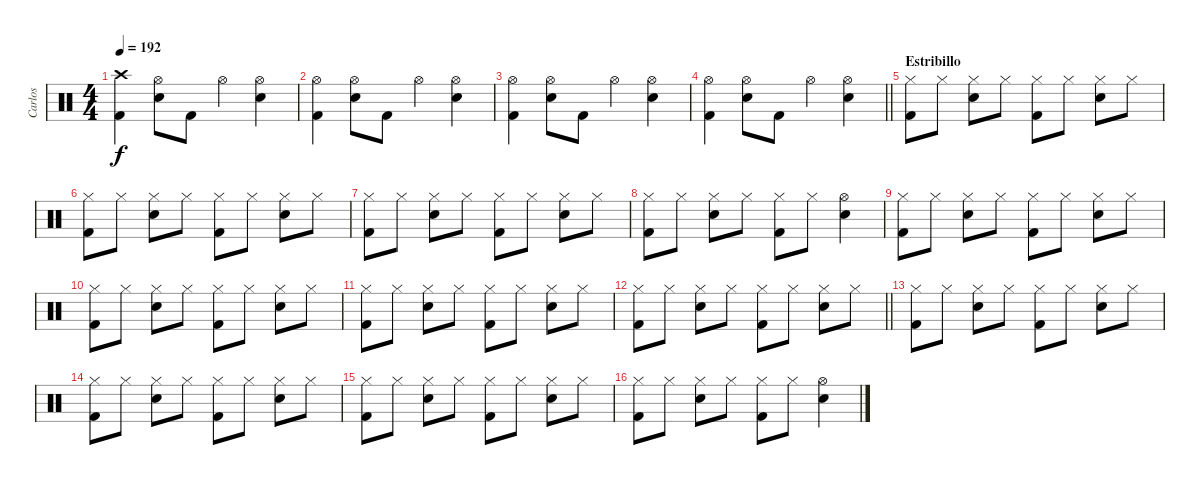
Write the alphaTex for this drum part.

\track ("Carlos" "Carlos") {instrument percussion}
\staff {score}
\articulation defaults
\ts (4 4)
\tempo 192
\clef neutral
\ks c
("Crash high (hit)" "Kick (hit) 2").4{dy f} ("Hi-Hat (open)" "Snare (hit) 2").8 "Kick (hit) 2".8 "Hi-Hat (open)".4 ("Hi-Hat (open)" "Snare (hit) 2").4 |
("Hi-Hat (open)" "Kick (hit) 2").4 ("Hi-Hat (open)" "Snare (hit) 2").8 "Kick (hit) 2".8 "Hi-Hat (open)".4 ("Hi-Hat (open)" "Snare (hit) 2").4 |
("Hi-Hat (open)" "Kick (hit) 2").4 ("Hi-Hat (open)" "Snare (hit) 2").8 "Kick (hit) 2".8 "Hi-Hat (open)".4 ("Hi-Hat (open)" "Snare (hit) 2").4 |
\barLineRight lightlight
("Hi-Hat (open)" "Kick (hit) 2").4 ("Hi-Hat (open)" "Snare (hit) 2").8 "Kick (hit) 2".8 "Hi-Hat (open)".4 ("Hi-Hat (open)" "Snare (hit) 2").4 |
\section ("" "Estribillo")
("Hi-Hat (closed)" "Kick (hit) 2").8 "Hi-Hat (closed)".8 ("Hi-Hat (closed)" "Snare (hit) 2").8 "Hi-Hat (closed)".8 ("Hi-Hat (closed)" "Kick (hit) 2").8 "Hi-Hat (closed)".8 ("Hi-Hat (closed)" "Snare (hit) 2").8 "Hi-Hat (closed)".8 |
("Hi-Hat (closed)" "Kick (hit) 2").8 "Hi-Hat (closed)".8 ("Hi-Hat (closed)" "Snare (hit) 2").8 "Hi-Hat (closed)".8 ("Hi-Hat (closed)" "Kick (hit) 2").8 "Hi-Hat (closed)".8 ("Hi-Hat (closed)" "Snare (hit) 2").8 "Hi-Hat (closed)".8 |
("Hi-Hat (closed)" "Kick (hit) 2").8 "Hi-Hat (closed)".8 ("Hi-Hat (closed)" "Snare (hit) 2").8 "Hi-Hat (closed)".8 ("Hi-Hat (closed)" "Kick (hit) 2").8 "Hi-Hat (closed)".8 ("Hi-Hat (closed)" "Snare (hit) 2").8 "Hi-Hat (closed)".8 |
("Hi-Hat (closed)" "Kick (hit) 2").8 "Hi-Hat (closed)".8 ("Hi-Hat (closed)" "Snare (hit) 2").8 "Hi-Hat (closed)".8 ("Hi-Hat (closed)" "Kick (hit) 2").8 "Hi-Hat (closed)".8 ("Hi-Hat (open)" "Snare (hit) 2").4 |
("Hi-Hat (closed)" "Kick (hit) 2").8 "Hi-Hat (closed)".8 ("Hi-Hat (closed)" "Snare (hit) 2").8 "Hi-Hat (closed)".8 ("Hi-Hat (closed)" "Kick (hit) 2").8 "Hi-Hat (closed)".8 ("Hi-Hat (closed)" "Snare (hit) 2").8 "Hi-Hat (closed)".8 |
("Hi-Hat (closed)" "Kick (hit) 2").8 "Hi-Hat (closed)".8 ("Hi-Hat (closed)" "Snare (hit) 2").8 "Hi-Hat (closed)".8 ("Hi-Hat (closed)" "Kick (hit) 2").8 "Hi-Hat (closed)".8 ("Hi-Hat (closed)" "Snare (hit) 2").8 "Hi-Hat (closed)".8 |
("Hi-Hat (closed)" "Kick (hit) 2").8 "Hi-Hat (closed)".8 ("Hi-Hat (closed)" "Snare (hit) 2").8 "Hi-Hat (closed)".8 ("Hi-Hat (closed)" "Kick (hit) 2").8 "Hi-Hat (closed)".8 ("Hi-Hat (closed)" "Snare (hit) 2").8 "Hi-Hat (closed)".8 |
\barLineRight lightlight
("Hi-Hat (closed)" "Kick (hit) 2").8 "Hi-Hat (closed)".8 ("Hi-Hat (closed)" "Snare (hit) 2").8 "Hi-Hat (closed)".8 ("Hi-Hat (closed)" "Kick (hit) 2").8 "Hi-Hat (closed)".8 ("Hi-Hat (closed)" "Snare (hit) 2").8 "Hi-Hat (closed)".8 |
("Hi-Hat (closed)" "Kick (hit) 2").8 "Hi-Hat (closed)".8 ("Hi-Hat (closed)" "Snare (hit) 2").8 "Hi-Hat (closed)".8 ("Hi-Hat (closed)" "Kick (hit) 2").8 "Hi-Hat (closed)".8 ("Hi-Hat (closed)" "Snare (hit) 2").8 "Hi-Hat (closed)".8 |
("Hi-Hat (closed)" "Kick (hit) 2").8 "Hi-Hat (closed)".8 ("Hi-Hat (closed)" "Snare (hit) 2").8 "Hi-Hat (closed)".8 ("Hi-Hat (closed)" "Kick (hit) 2").8 "Hi-Hat (closed)".8 ("Hi-Hat (closed)" "Snare (hit) 2").8 "Hi-Hat (closed)".8 |
("Hi-Hat (closed)" "Kick (hit) 2").8 "Hi-Hat (closed)".8 ("Hi-Hat (closed)" "Snare (hit) 2").8 "Hi-Hat (closed)".8 ("Hi-Hat (closed)" "Kick (hit) 2").8 "Hi-Hat (closed)".8 ("Hi-Hat (closed)" "Snare (hit) 2").8 "Hi-Hat (closed)".8 |
("Hi-Hat (closed)" "Kick (hit) 2").8 "Hi-Hat (closed)".8 ("Hi-Hat (closed)" "Snare (hit) 2").8 "Hi-Hat (closed)".8 ("Hi-Hat (closed)" "Kick (hit) 2").8 "Hi-Hat (closed)".8 ("Hi-Hat (open)" "Snare (hit) 2").4
